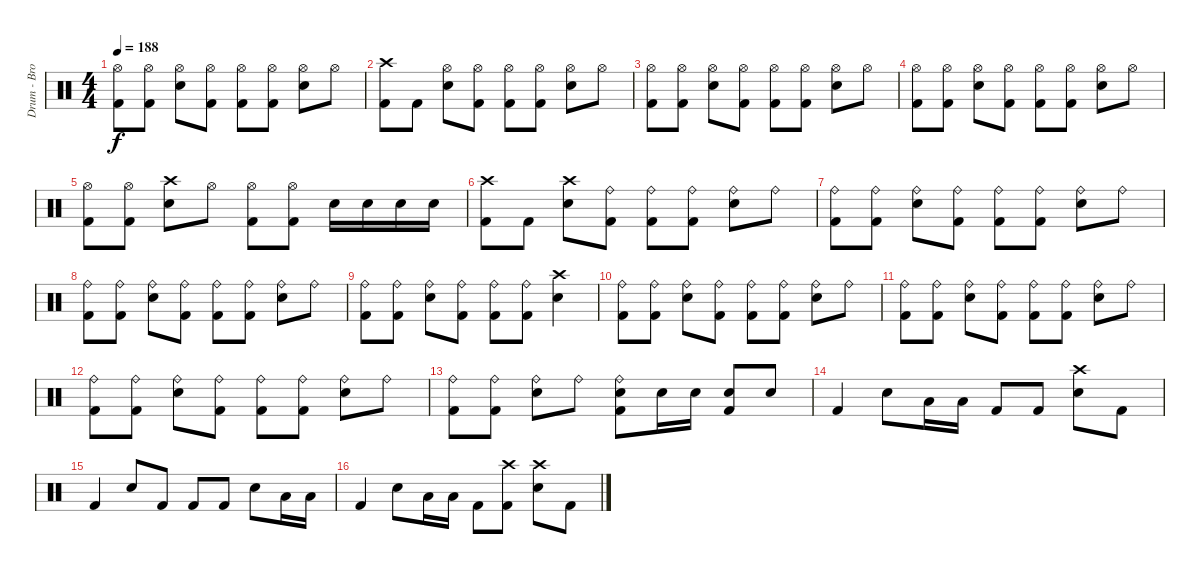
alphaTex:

\track ("Drum - Brooks Wackerman" "Drum - Bro") {instrument percussion}
\staff {score}
\articulation defaults
\ts (4 4)
\tempo 188
\clef neutral
\ks c
("Hi-Hat (open)" "Kick (hit) 2").8{dy f} ("Hi-Hat (open)" "Kick (hit) 2").8 ("Hi-Hat (open)" "Electric Snare (hit)").8 ("Hi-Hat (open)" "Kick (hit) 2").8 ("Hi-Hat (open)" "Kick (hit) 2").8 ("Hi-Hat (open)" "Kick (hit) 2").8 ("Hi-Hat (open)" "Electric Snare (hit)").8 "Hi-Hat (open)".8 |
("Crash high (hit)" "Kick (hit) 2").8 "Kick (hit) 2".8 ("Hi-Hat (open)" "Electric Snare (hit)").8 ("Hi-Hat (open)" "Kick (hit) 2").8 ("Hi-Hat (open)" "Kick (hit) 2").8 ("Hi-Hat (open)" "Kick (hit) 2").8 ("Hi-Hat (open)" "Electric Snare (hit)").8 "Hi-Hat (open)".8 |
("Hi-Hat (open)" "Kick (hit) 2").8 ("Hi-Hat (open)" "Kick (hit) 2").8 ("Hi-Hat (open)" "Electric Snare (hit)").8 ("Hi-Hat (open)" "Kick (hit) 2").8 ("Hi-Hat (open)" "Kick (hit) 2").8 ("Hi-Hat (open)" "Kick (hit) 2").8 ("Hi-Hat (open)" "Electric Snare (hit)").8 "Hi-Hat (open)".8 |
("Hi-Hat (open)" "Kick (hit) 2").8 ("Hi-Hat (open)" "Kick (hit) 2").8 ("Hi-Hat (open)" "Electric Snare (hit)").8 ("Hi-Hat (open)" "Kick (hit) 2").8 ("Hi-Hat (open)" "Kick (hit) 2").8 ("Hi-Hat (open)" "Kick (hit) 2").8 ("Hi-Hat (open)" "Electric Snare (hit)").8 "Hi-Hat (open)".8 |
("Hi-Hat (open)" "Kick (hit) 2").8 ("Hi-Hat (open)" "Kick (hit) 2").8 ("Crash high (hit)" "Electric Snare (hit)").8 "Hi-Hat (open)".8 ("Hi-Hat (open)" "Kick (hit) 2").8 ("Hi-Hat (open)" "Kick (hit) 2").8 "Electric Snare (hit)".16 "Electric Snare (hit)".16 "Electric Snare (hit)".16 "Electric Snare (hit)".16 |
("Crash high (hit)" "Kick (hit) 2").8 "Kick (hit) 2".8 ("Crash high (hit)" "Electric Snare (hit)").8 ("Ride (bell)" "Kick (hit) 2").8 ("Ride (bell)" "Kick (hit) 2").8 ("Ride (bell)" "Kick (hit) 2").8 ("Ride (bell)" "Electric Snare (hit)").8 "Ride (bell)".8 |
("Ride (bell)" "Kick (hit) 2").8 ("Ride (bell)" "Kick (hit) 2").8 ("Ride (bell)" "Electric Snare (hit)").8 ("Ride (bell)" "Kick (hit) 2").8 ("Ride (bell)" "Kick (hit) 2").8 ("Ride (bell)" "Kick (hit) 2").8 ("Ride (bell)" "Electric Snare (hit)").8 "Ride (bell)".8 |
("Ride (bell)" "Kick (hit) 2").8 ("Ride (bell)" "Kick (hit) 2").8 ("Ride (bell)" "Electric Snare (hit)").8 ("Ride (bell)" "Kick (hit) 2").8 ("Ride (bell)" "Kick (hit) 2").8 ("Ride (bell)" "Kick (hit) 2").8 ("Ride (bell)" "Electric Snare (hit)").8 "Ride (bell)".8 |
("Ride (bell)" "Kick (hit) 2").8 ("Ride (bell)" "Kick (hit) 2").8 ("Ride (bell)" "Electric Snare (hit)").8 ("Ride (bell)" "Kick (hit) 2").8 ("Ride (bell)" "Kick (hit) 2").8 ("Ride (bell)" "Kick (hit) 2").8 ("Crash high (hit)" "Electric Snare (hit)").4 |
("Ride (bell)" "Kick (hit) 2").8 ("Ride (bell)" "Kick (hit) 2").8 ("Ride (bell)" "Electric Snare (hit)").8 ("Ride (bell)" "Kick (hit) 2").8 ("Ride (bell)" "Kick (hit) 2").8 ("Ride (bell)" "Kick (hit) 2").8 ("Ride (bell)" "Electric Snare (hit)").8 "Ride (bell)".8 |
("Ride (bell)" "Kick (hit) 2").8 ("Ride (bell)" "Kick (hit) 2").8 ("Ride (bell)" "Electric Snare (hit)").8 ("Ride (bell)" "Kick (hit) 2").8 ("Ride (bell)" "Kick (hit) 2").8 ("Ride (bell)" "Kick (hit) 2").8 ("Ride (bell)" "Electric Snare (hit)").8 "Ride (bell)".8 |
("Ride (bell)" "Kick (hit) 2").8 ("Ride (bell)" "Kick (hit) 2").8 ("Ride (bell)" "Electric Snare (hit)").8 ("Ride (bell)" "Kick (hit) 2").8 ("Ride (bell)" "Kick (hit) 2").8 ("Ride (bell)" "Kick (hit) 2").8 ("Ride (bell)" "Electric Snare (hit)").8 "Ride (bell)".8 |
("Ride (bell)" "Kick (hit) 2").8 ("Ride (bell)" "Kick (hit) 2").8 ("Ride (bell)" "Electric Snare (hit)").8 "Ride (bell)".8 ("Ride (bell)" "Electric Snare (hit)" "Kick (hit) 2").8 "Electric Snare (hit)".16 "Electric Snare (hit)".16 ("Electric Snare (hit)" "Kick (hit) 2").8 "Electric Snare (hit)".8 |
"Kick (hit) 2".4 "Electric Snare (hit)".8 "Low Floor Tom (hit)".16 "Low Floor Tom (hit)".16 "Kick (hit) 2".8 "Kick (hit) 2".8 ("Crash high (hit)" "Electric Snare (hit)").8 "Kick (hit) 2".8 |
"Kick (hit) 2".4 "Electric Snare (hit)".8 "Kick (hit) 2".8 "Kick (hit) 2".8 "Kick (hit) 2".8 "Electric Snare (hit)".8 "Low Floor Tom (hit)".16 "Low Floor Tom (hit)".16 |
"Kick (hit) 2".4 "Electric Snare (hit)".8 "Low Floor Tom (hit)".16 "Low Floor Tom (hit)".16 "Kick (hit) 2".8 ("Crash high (hit)" "Kick (hit) 2").8 ("Crash high (hit)" "Electric Snare (hit)").8 "Kick (hit) 2".8
